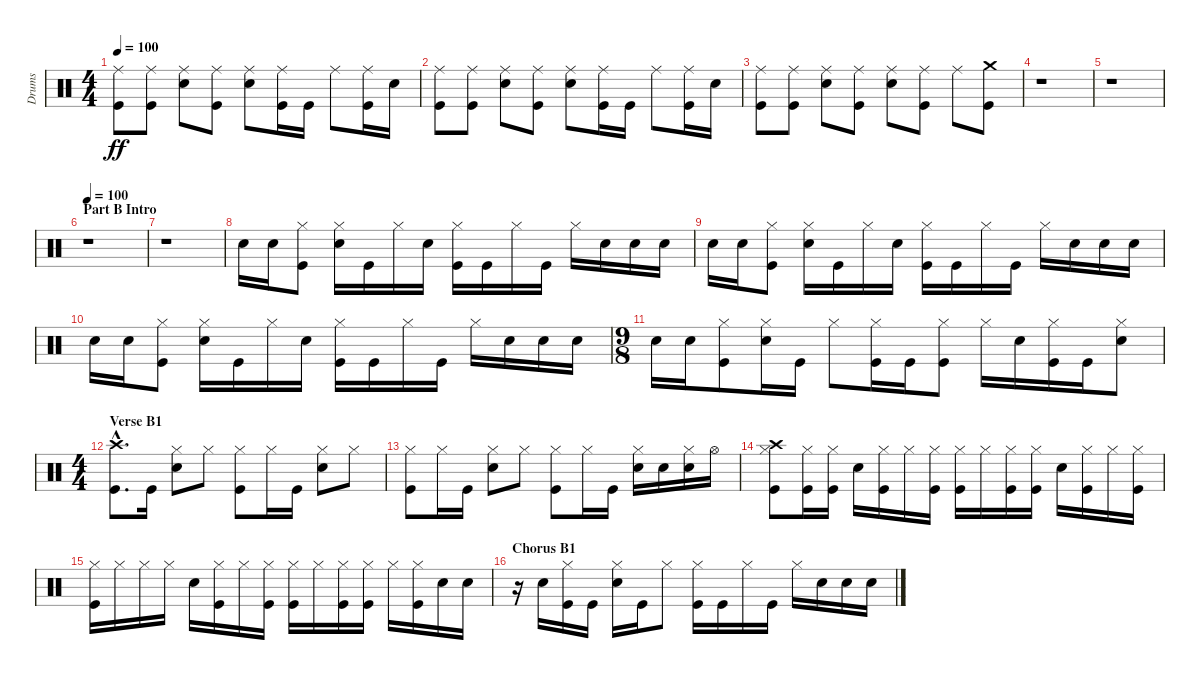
\track ("Drums" "Drums") {instrument percussion}
\staff {score}
\articulation defaults
\ts (4 4)
\tempo 100
\clef neutral
\ks c
("Ride (middle)" "Kick (hit)").8{dy ff} ("Ride (middle)" "Kick (hit)").8 ("Ride (middle)" "Electric Snare (hit)").8 ("Ride (middle)" "Kick (hit)").8 ("Ride (middle)" "Electric Snare (hit)").8 ("Ride (middle)" "Kick (hit)").16 "Kick (hit)".16 "Ride (middle)".8 ("Ride (middle)" "Kick (hit)").16 "Electric Snare (hit)".16 |
("Ride (middle)" "Kick (hit)").8 ("Ride (middle)" "Kick (hit)").8 ("Ride (middle)" "Electric Snare (hit)").8 ("Ride (middle)" "Kick (hit)").8 ("Ride (middle)" "Electric Snare (hit)").8 ("Ride (middle)" "Kick (hit)").16 "Kick (hit)".16 "Ride (middle)".8 ("Ride (middle)" "Kick (hit)").16 "Electric Snare (hit)".16 |
("Ride (middle)" "Kick (hit)").8 ("Ride (middle)" "Kick (hit)").8 ("Ride (middle)" "Electric Snare (hit)").8 ("Ride (middle)" "Kick (hit)").8 ("Ride (middle)" "Electric Snare (hit)").8 ("Ride (middle)" "Kick (hit)").8 "Ride (middle)".8 ("Crash medium (hit)" "Kick (hit)").8 |
r.1 |
r.1 |
\section ("" "Part B Intro")
\tempo 100
r.1 |
r.1 |
"Electric Snare (hit)".16 "Electric Snare (hit)".16 ("Hi-Hat (closed)" "Kick (hit)").8 ("Hi-Hat (closed)" "Electric Snare (hit)").16 "Kick (hit)".16 "Hi-Hat (closed)".16 "Electric Snare (hit)".16 ("Hi-Hat (closed)" "Kick (hit)").16 "Kick (hit)".16 "Hi-Hat (closed)".16 "Kick (hit)".16 "Hi-Hat (closed)".16 "Electric Snare (hit)".16 "Electric Snare (hit)".16 "Electric Snare (hit)".16 |
"Electric Snare (hit)".16 "Electric Snare (hit)".16 ("Hi-Hat (closed)" "Kick (hit)").8 ("Hi-Hat (closed)" "Electric Snare (hit)").16 "Kick (hit)".16 "Hi-Hat (closed)".16 "Electric Snare (hit)".16 ("Hi-Hat (closed)" "Kick (hit)").16 "Kick (hit)".16 "Hi-Hat (closed)".16 "Kick (hit)".16 "Hi-Hat (closed)".16 "Electric Snare (hit)".16 "Electric Snare (hit)".16 "Electric Snare (hit)".16 |
"Electric Snare (hit)".16 "Electric Snare (hit)".16 ("Hi-Hat (closed)" "Kick (hit)").8 ("Hi-Hat (closed)" "Electric Snare (hit)").16 "Kick (hit)".16 "Hi-Hat (closed)".16 "Electric Snare (hit)".16 ("Hi-Hat (closed)" "Kick (hit)").16 "Kick (hit)".16 "Hi-Hat (closed)".16 "Kick (hit)".16 "Hi-Hat (closed)".16 "Electric Snare (hit)".16 "Electric Snare (hit)".16 "Electric Snare (hit)".16 |
\ts (9 8)
"Electric Snare (hit)".16 "Electric Snare (hit)".16 ("Hi-Hat (closed)" "Kick (hit)").8 ("Hi-Hat (closed)" "Electric Snare (hit)").16 "Kick (hit)".16 "Hi-Hat (closed)".8 ("Hi-Hat (closed)" "Kick (hit)").16 "Kick (hit)".16 ("Hi-Hat (closed)" "Kick (hit)").8 "Hi-Hat (closed)".16 "Electric Snare (hit)".16 ("Hi-Hat (closed)" "Kick (hit)").16 "Kick (hit)".16 ("Hi-Hat (closed)" "Electric Snare (hit)").8 |
\ts (4 4)
\section ("" "Verse B1")
("Crash high (hit)"{hac} "Kick (hit)"{hac}).8{d} "Kick (hit)".16 ("Hi-Hat (closed)" "Electric Snare (hit)").8 "Hi-Hat (closed)".8 ("Hi-Hat (closed)" "Kick (hit)").8 "Hi-Hat (closed)".16 "Kick (hit)".16 ("Hi-Hat (closed)" "Electric Snare (hit)").8 "Hi-Hat (closed)".8 |
("Hi-Hat (closed)" "Kick (hit)").8 "Hi-Hat (closed)".16 "Kick (hit)".16 ("Hi-Hat (closed)" "Electric Snare (hit)").8 "Hi-Hat (closed)".8 ("Hi-Hat (closed)" "Kick (hit)").8 "Hi-Hat (closed)".16 "Kick (hit)".16 ("Hi-Hat (closed)" "Electric Snare (hit)").16 "Electric Snare (hit)".16 ("Hi-Hat (closed)" "Electric Snare (hit)").16 "Hi-Hat (open)".16 |
("Hi-Hat (closed)" "Crash high (hit)" "Kick (hit)").8 ("Hi-Hat (closed)" "Kick (hit)").16 ("Hi-Hat (closed)" "Kick (hit)").16 "Electric Snare (hit)".16 ("Hi-Hat (closed)" "Kick (hit)").16 "Hi-Hat (closed)".16 ("Hi-Hat (closed)" "Kick (hit)").16 ("Hi-Hat (closed)" "Kick (hit)").16 "Hi-Hat (closed)".16 ("Hi-Hat (closed)" "Kick (hit)").16 ("Hi-Hat (closed)" "Kick (hit)").16 "Electric Snare (hit)".16 ("Hi-Hat (closed)" "Kick (hit)").16 "Hi-Hat (closed)".16 ("Hi-Hat (closed)" "Kick (hit)").16 |
("Hi-Hat (closed)" "Kick (hit)").16 "Hi-Hat (closed)".16 "Hi-Hat (closed)".16 "Hi-Hat (closed)".16 "Electric Snare (hit)".16 ("Hi-Hat (closed)" "Kick (hit)").16 "Hi-Hat (closed)".16 ("Hi-Hat (closed)" "Kick (hit)").16 ("Hi-Hat (closed)" "Kick (hit)").16 "Hi-Hat (closed)".16 ("Hi-Hat (closed)" "Kick (hit)").16 ("Hi-Hat (closed)" "Kick (hit)").16 "Hi-Hat (closed)".16 ("Hi-Hat (closed)" "Kick (hit)").16 "Electric Snare (hit)".16 "Electric Snare (hit)".16 |
\section ("" "Chorus B1")
r.16 "Electric Snare (hit)".16 ("Hi-Hat (closed)" "Kick (hit)").16 "Kick (hit)".16 ("Hi-Hat (closed)" "Electric Snare (hit)").16 "Kick (hit)".16 "Hi-Hat (closed)".8 ("Hi-Hat (closed)" "Kick (hit)").16 "Kick (hit)".16 "Hi-Hat (closed)".16 "Kick (hit)".16 "Hi-Hat (closed)".16 "Electric Snare (hit)".16 "Electric Snare (hit)".16 "Electric Snare (hit)".16
